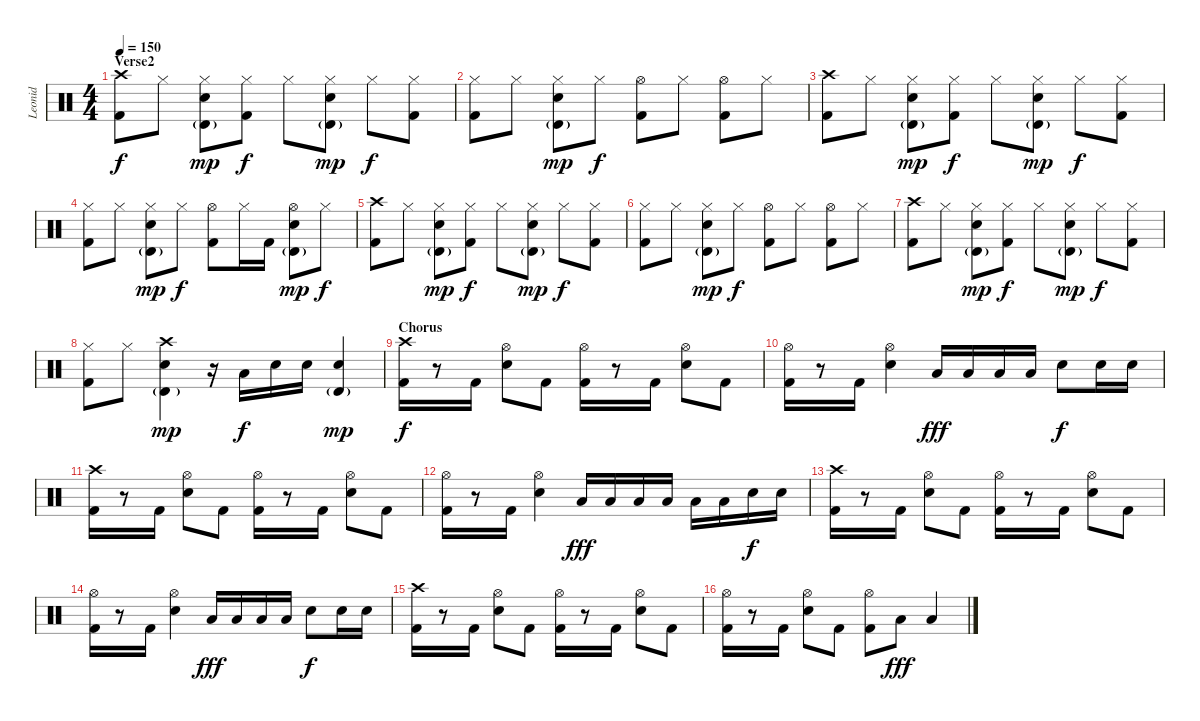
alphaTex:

\track ("Leonid" "Leonid") {instrument percussion}
\staff {score}
\articulation defaults
\ts (4 4)
\section ("" "Verse2")
\tempo 150
\clef neutral
\ks c
("Crash high (hit)" "Kick (hit) 2").8{dy f} "Hi-Hat (closed)".8 ("Hi-Hat (closed)" "Timbale high (hit)"{g} "Electric Snare (hit)").8{dy mp} ("Hi-Hat (closed)" "Kick (hit) 2").8{dy f} "Hi-Hat (closed)".8 ("Hi-Hat (closed)" "Timbale high (hit)"{g} "Electric Snare (hit)").8{dy mp} "Hi-Hat (closed)".8{dy f} ("Hi-Hat (closed)" "Kick (hit) 2").8 |
("Hi-Hat (closed)" "Kick (hit) 2").8 "Hi-Hat (closed)".8 ("Hi-Hat (closed)" "Timbale high (hit)"{g} "Electric Snare (hit)").8{dy mp} "Hi-Hat (closed)".8{dy f} ("Hi-Hat (open)" "Kick (hit) 2").8 "Hi-Hat (closed)".8 ("Hi-Hat (open)" "Kick (hit) 2").8 "Hi-Hat (closed)".8 |
("Crash high (hit)" "Kick (hit) 2").8 "Hi-Hat (closed)".8 ("Hi-Hat (closed)" "Timbale high (hit)"{g} "Electric Snare (hit)").8{dy mp} ("Hi-Hat (closed)" "Kick (hit) 2").8{dy f} "Hi-Hat (closed)".8 ("Hi-Hat (closed)" "Timbale high (hit)"{g} "Electric Snare (hit)").8{dy mp} "Hi-Hat (closed)".8{dy f} ("Hi-Hat (closed)" "Kick (hit) 2").8 |
("Hi-Hat (closed)" "Kick (hit) 2").8 "Hi-Hat (closed)".8 ("Hi-Hat (closed)" "Timbale high (hit)"{g} "Electric Snare (hit)").8{dy mp} "Hi-Hat (closed)".8{dy f} ("Hi-Hat (open)" "Kick (hit) 2").8 "Hi-Hat (closed)".16 "Kick (hit) 2".16 ("Hi-Hat (open)" "Timbale high (hit)"{g} "Electric Snare (hit)").8{dy mp} "Hi-Hat (closed)".8{dy f} |
("Crash high (hit)" "Kick (hit) 2").8 "Hi-Hat (closed)".8 ("Hi-Hat (closed)" "Timbale high (hit)"{g} "Electric Snare (hit)").8{dy mp} ("Hi-Hat (closed)" "Kick (hit) 2").8{dy f} "Hi-Hat (closed)".8 ("Hi-Hat (closed)" "Timbale high (hit)"{g} "Electric Snare (hit)").8{dy mp} "Hi-Hat (closed)".8{dy f} ("Hi-Hat (closed)" "Kick (hit) 2").8 |
("Hi-Hat (closed)" "Kick (hit) 2").8 "Hi-Hat (closed)".8 ("Hi-Hat (closed)" "Timbale high (hit)"{g} "Electric Snare (hit)").8{dy mp} "Hi-Hat (closed)".8{dy f} ("Hi-Hat (open)" "Kick (hit) 2").8 "Hi-Hat (closed)".8 ("Hi-Hat (open)" "Kick (hit) 2").8 "Hi-Hat (closed)".8 |
("Crash high (hit)" "Kick (hit) 2").8 "Hi-Hat (closed)".8 ("Hi-Hat (closed)" "Timbale high (hit)"{g} "Electric Snare (hit)").8{dy mp} ("Hi-Hat (closed)" "Kick (hit) 2").8{dy f} "Hi-Hat (closed)".8 ("Hi-Hat (closed)" "Timbale high (hit)"{g} "Electric Snare (hit)").8{dy mp} "Hi-Hat (closed)".8{dy f} ("Hi-Hat (closed)" "Kick (hit) 2").8 |
("Hi-Hat (closed)" "Kick (hit) 2").8 "Hi-Hat (closed)".8 ("Crash high (hit)" "Timbale high (hit)"{g} "Electric Snare (hit)").4{dy mp} r.16 "Low Tom (hit)".16{dy f} "Electric Snare (hit)".16 "Electric Snare (hit)".16 ("Timbale high (hit)"{g} "Electric Snare (hit)").4{dy mp} |
\section ("" "Chorus")
("Crash high (hit)" "Kick (hit) 2").16{dy f} r.8 "Kick (hit) 2".16 ("Hi-Hat (open)" "Electric Snare (hit)").8 "Kick (hit) 2".8 ("Hi-Hat (open)" "Kick (hit) 2").16 r.8 "Kick (hit) 2".16 ("Hi-Hat (open)" "Electric Snare (hit)").8 "Kick (hit) 2".8 |
("Hi-Hat (open)" "Kick (hit) 2").16 r.8 "Kick (hit) 2".16 ("Hi-Hat (open)" "Electric Snare (hit)").4 "Low Tom (hit)".16{dy fff} "Low Tom (hit)".16 "Low Tom (hit)".16 "Low Tom (hit)".16 "Electric Snare (hit)".8{dy f} "Electric Snare (hit)".16 "Electric Snare (hit)".16 |
("Crash high (hit)" "Kick (hit) 2").16 r.8 "Kick (hit) 2".16 ("Hi-Hat (open)" "Electric Snare (hit)").8 "Kick (hit) 2".8 ("Hi-Hat (open)" "Kick (hit) 2").16 r.8 "Kick (hit) 2".16 ("Hi-Hat (open)" "Electric Snare (hit)").8 "Kick (hit) 2".8 |
("Hi-Hat (open)" "Kick (hit) 2").16 r.8 "Kick (hit) 2".16 ("Hi-Hat (open)" "Electric Snare (hit)").4 "Low Tom (hit)".16{dy fff} "Low Tom (hit)".16 "Low Tom (hit)".16 "Low Floor Tom (hit)".16 "Low Floor Tom (hit)".16 "Low Floor Tom (hit)".16 "Electric Snare (hit)".16{dy f} "Electric Snare (hit)".16 |
("Crash high (hit)" "Kick (hit) 2").16 r.8 "Kick (hit) 2".16 ("Hi-Hat (open)" "Electric Snare (hit)").8 "Kick (hit) 2".8 ("Hi-Hat (open)" "Kick (hit) 2").16 r.8 "Kick (hit) 2".16 ("Hi-Hat (open)" "Electric Snare (hit)").8 "Kick (hit) 2".8 |
("Hi-Hat (open)" "Kick (hit) 2").16 r.8 "Kick (hit) 2".16 ("Hi-Hat (open)" "Electric Snare (hit)").4 "Low Tom (hit)".16{dy fff} "Low Tom (hit)".16 "Low Tom (hit)".16 "Low Tom (hit)".16 "Electric Snare (hit)".8{dy f} "Electric Snare (hit)".16 "Electric Snare (hit)".16 |
("Crash high (hit)" "Kick (hit) 2").16 r.8 "Kick (hit) 2".16 ("Hi-Hat (open)" "Electric Snare (hit)").8 "Kick (hit) 2".8 ("Hi-Hat (open)" "Kick (hit) 2").16 r.8 "Kick (hit) 2".16 ("Hi-Hat (open)" "Electric Snare (hit)").8 "Kick (hit) 2".8 |
("Hi-Hat (open)" "Kick (hit) 2").16 r.8 "Kick (hit) 2".16 ("Hi-Hat (open)" "Electric Snare (hit)").8 "Kick (hit) 2".8 ("Hi-Hat (open)" "Kick (hit) 2").8 "Low Tom (hit)".8{dy fff} "Low Tom (hit)".4
